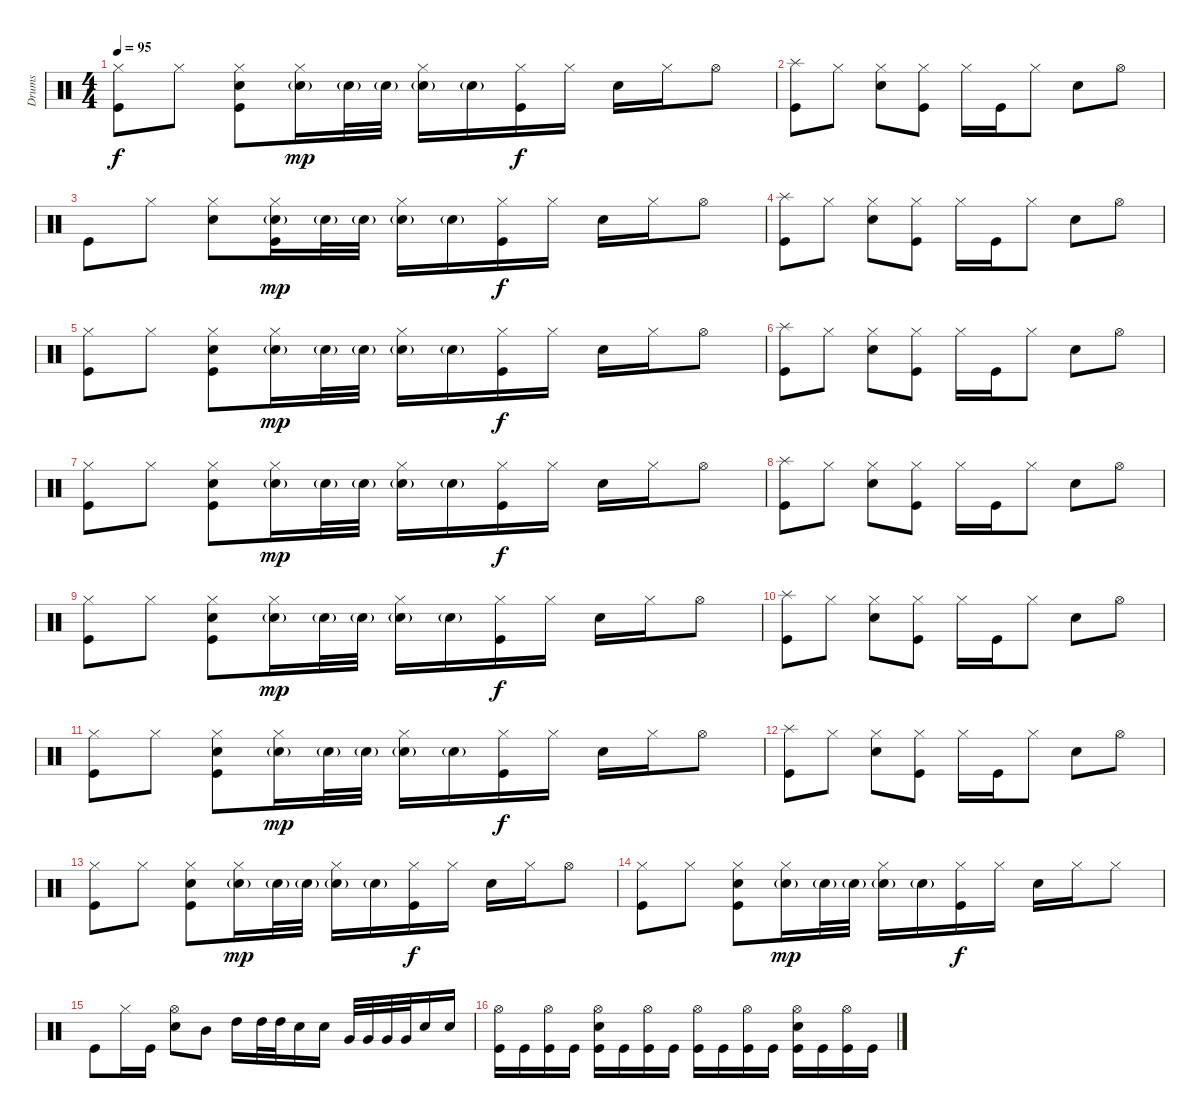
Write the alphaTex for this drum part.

\track ("Drums" "Drums") {instrument percussion}
\staff {score}
\articulation defaults
\ts (4 4)
\tempo 95
\clef neutral
\ks c
("Hi-Hat (closed)" "Kick (hit)").8{dy f} "Hi-Hat (closed)".8 ("Hi-Hat (closed)" "Electric Snare (hit)" "Kick (hit)").8 ("Hi-Hat (closed)" "Electric Snare (hit)"{g}).16{dy mp} "Electric Snare (hit)"{g}.32 "Electric Snare (hit)"{g}.32 ("Hi-Hat (closed)" "Electric Snare (hit)"{g}).16 "Electric Snare (hit)"{g}.16 ("Hi-Hat (closed)" "Kick (hit)").16{dy f} "Hi-Hat (closed)".16 "Electric Snare (hit)".16 "Hi-Hat (closed)".16 "Hi-Hat (open)".8 |
("Splash (hit)" "Kick (hit)").8 "Hi-Hat (closed)".8 ("Hi-Hat (closed)" "Electric Snare (hit)").8 ("Hi-Hat (closed)" "Kick (hit)").8 "Hi-Hat (closed)".16 "Kick (hit)".16 "Hi-Hat (closed)".8 "Electric Snare (hit)".8 "Hi-Hat (open)".8 |
"Kick (hit)".8 "Hi-Hat (closed)".8 ("Hi-Hat (closed)" "Electric Snare (hit)").8 ("Hi-Hat (closed)" "Electric Snare (hit)"{g} "Kick (hit)").16{dy mp} "Electric Snare (hit)"{g}.32 "Electric Snare (hit)"{g}.32 ("Hi-Hat (closed)" "Electric Snare (hit)"{g}).16 "Electric Snare (hit)"{g}.16 ("Hi-Hat (closed)" "Kick (hit)").16{dy f} "Hi-Hat (closed)".16 "Electric Snare (hit)".16 "Hi-Hat (closed)".16 "Hi-Hat (open)".8 |
("Splash (hit)" "Kick (hit)").8 "Hi-Hat (closed)".8 ("Hi-Hat (closed)" "Electric Snare (hit)").8 ("Hi-Hat (closed)" "Kick (hit)").8 "Hi-Hat (closed)".16 "Kick (hit)".16 "Hi-Hat (closed)".8 "Electric Snare (hit)".8 "Hi-Hat (open)".8 |
("Hi-Hat (closed)" "Kick (hit)").8 "Hi-Hat (closed)".8 ("Hi-Hat (closed)" "Electric Snare (hit)" "Kick (hit)").8 ("Hi-Hat (closed)" "Electric Snare (hit)"{g}).16{dy mp} "Electric Snare (hit)"{g}.32 "Electric Snare (hit)"{g}.32 ("Hi-Hat (closed)" "Electric Snare (hit)"{g}).16 "Electric Snare (hit)"{g}.16 ("Hi-Hat (closed)" "Kick (hit)").16{dy f} "Hi-Hat (closed)".16 "Electric Snare (hit)".16 "Hi-Hat (closed)".16 "Hi-Hat (open)".8 |
("Splash (hit)" "Kick (hit)").8 "Hi-Hat (closed)".8 ("Hi-Hat (closed)" "Electric Snare (hit)").8 ("Hi-Hat (closed)" "Kick (hit)").8 "Hi-Hat (closed)".16 "Kick (hit)".16 "Hi-Hat (closed)".8 "Electric Snare (hit)".8 "Hi-Hat (open)".8 |
("Hi-Hat (closed)" "Kick (hit)").8 "Hi-Hat (closed)".8 ("Hi-Hat (closed)" "Electric Snare (hit)" "Kick (hit)").8 ("Hi-Hat (closed)" "Electric Snare (hit)"{g}).16{dy mp} "Electric Snare (hit)"{g}.32 "Electric Snare (hit)"{g}.32 ("Hi-Hat (closed)" "Electric Snare (hit)"{g}).16 "Electric Snare (hit)"{g}.16 ("Hi-Hat (closed)" "Kick (hit)").16{dy f} "Hi-Hat (closed)".16 "Electric Snare (hit)".16 "Hi-Hat (closed)".16 "Hi-Hat (open)".8 |
("Splash (hit)" "Kick (hit)").8 "Hi-Hat (closed)".8 ("Hi-Hat (closed)" "Electric Snare (hit)").8 ("Hi-Hat (closed)" "Kick (hit)").8 "Hi-Hat (closed)".16 "Kick (hit)".16 "Hi-Hat (closed)".8 "Electric Snare (hit)".8 "Hi-Hat (open)".8 |
("Hi-Hat (closed)" "Kick (hit)").8 "Hi-Hat (closed)".8 ("Hi-Hat (closed)" "Electric Snare (hit)" "Kick (hit)").8 ("Hi-Hat (closed)" "Electric Snare (hit)"{g}).16{dy mp} "Electric Snare (hit)"{g}.32 "Electric Snare (hit)"{g}.32 ("Hi-Hat (closed)" "Electric Snare (hit)"{g}).16 "Electric Snare (hit)"{g}.16 ("Hi-Hat (closed)" "Kick (hit)").16{dy f} "Hi-Hat (closed)".16 "Electric Snare (hit)".16 "Hi-Hat (closed)".16 "Hi-Hat (open)".8 |
("Splash (hit)" "Kick (hit)").8 "Hi-Hat (closed)".8 ("Hi-Hat (closed)" "Electric Snare (hit)").8 ("Hi-Hat (closed)" "Kick (hit)").8 "Hi-Hat (closed)".16 "Kick (hit)".16 "Hi-Hat (closed)".8 "Electric Snare (hit)".8 "Hi-Hat (open)".8 |
("Hi-Hat (closed)" "Kick (hit)").8 "Hi-Hat (closed)".8 ("Hi-Hat (closed)" "Electric Snare (hit)" "Kick (hit)").8 ("Hi-Hat (closed)" "Electric Snare (hit)"{g}).16{dy mp} "Electric Snare (hit)"{g}.32 "Electric Snare (hit)"{g}.32 ("Hi-Hat (closed)" "Electric Snare (hit)"{g}).16 "Electric Snare (hit)"{g}.16 ("Hi-Hat (closed)" "Kick (hit)").16{dy f} "Hi-Hat (closed)".16 "Electric Snare (hit)".16 "Hi-Hat (closed)".16 "Hi-Hat (open)".8 |
("Splash (hit)" "Kick (hit)").8 "Hi-Hat (closed)".8 ("Hi-Hat (closed)" "Electric Snare (hit)").8 ("Hi-Hat (closed)" "Kick (hit)").8 "Hi-Hat (closed)".16 "Kick (hit)".16 "Hi-Hat (closed)".8 "Electric Snare (hit)".8 "Hi-Hat (open)".8 |
("Hi-Hat (closed)" "Kick (hit)").8 "Hi-Hat (closed)".8 ("Hi-Hat (closed)" "Electric Snare (hit)" "Kick (hit)").8 ("Hi-Hat (closed)" "Electric Snare (hit)"{g}).16{dy mp} "Electric Snare (hit)"{g}.32 "Electric Snare (hit)"{g}.32 ("Hi-Hat (closed)" "Electric Snare (hit)"{g}).16 "Electric Snare (hit)"{g}.16 ("Hi-Hat (closed)" "Kick (hit)").16{dy f} "Hi-Hat (closed)".16 "Electric Snare (hit)".16 "Hi-Hat (closed)".16 "Hi-Hat (open)".8 |
("Hi-Hat (closed)" "Kick (hit)").8 "Hi-Hat (closed)".8 ("Hi-Hat (closed)" "Electric Snare (hit)" "Kick (hit)").8 ("Hi-Hat (closed)" "Electric Snare (hit)"{g}).16{dy mp} "Electric Snare (hit)"{g}.32 "Electric Snare (hit)"{g}.32 ("Hi-Hat (closed)" "Electric Snare (hit)"{g}).16 "Electric Snare (hit)"{g}.16 ("Hi-Hat (closed)" "Kick (hit)").16{dy f} "Hi-Hat (closed)".16 "Electric Snare (hit)".16 "Hi-Hat (closed)".16 "Hi-Hat (closed)".8 |
"Kick (hit)".8 "Hi-Hat (closed)".16 "Kick (hit)".16 ("Hi-Hat (open)" "Electric Snare (hit)").8 "Mid Tom (hit)".8 "High Tom (hit)".16 "High Tom (hit)".32 "High Tom (hit)".32 "Electric Snare (hit)".16 "Electric Snare (hit)".16 "Very Low Tom (hit)".32 "Very Low Tom (hit)".32 "Very Low Tom (hit)".32 "Very Low Tom (hit)".32 "Electric Snare (hit)".16 "Electric Snare (hit)".16 |
("Hi-Hat (open)" "Kick (hit)").16 "Kick (hit)".16 ("Hi-Hat (open)" "Kick (hit)").16 "Kick (hit)".16 ("Hi-Hat (open)" "Electric Snare (hit)" "Kick (hit)").16 "Kick (hit)".16 ("Hi-Hat (open)" "Kick (hit)").16 "Kick (hit)".16 ("Hi-Hat (open)" "Kick (hit)").16 "Kick (hit)".16 ("Hi-Hat (open)" "Kick (hit)").16 "Kick (hit)".16 ("Hi-Hat (open)" "Electric Snare (hit)" "Kick (hit)").16 "Kick (hit)".16 ("Hi-Hat (open)" "Kick (hit)").16 "Kick (hit)".16
